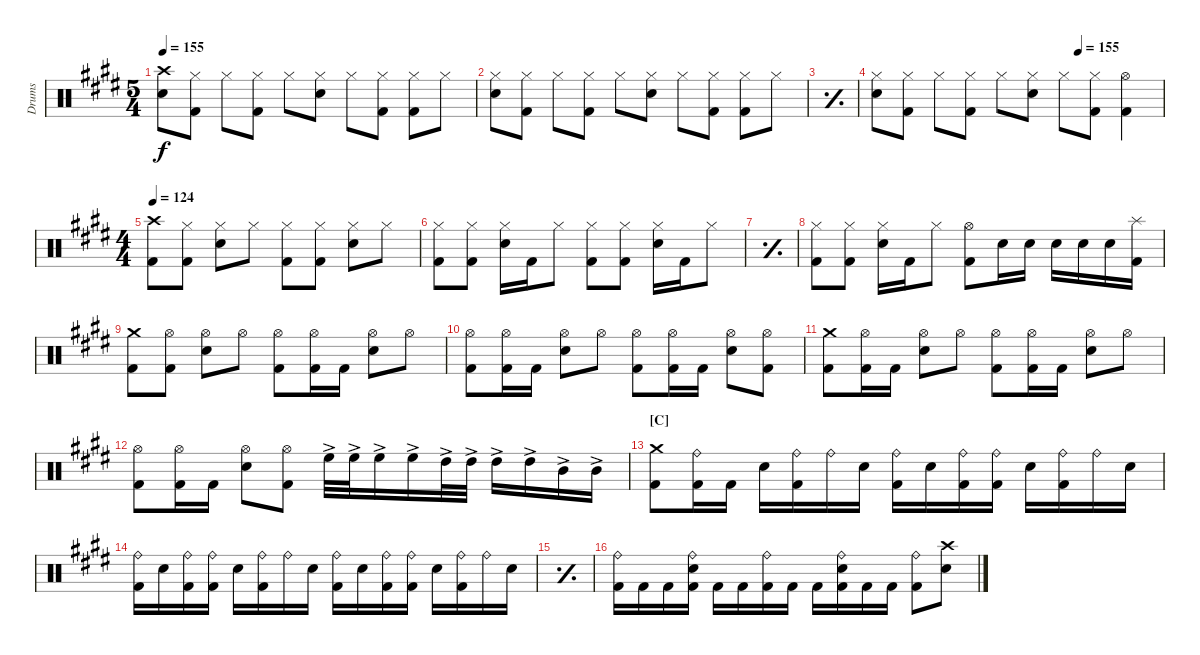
\defaultSystemsLayout 4
\bracketExtendMode groupsimilarinstruments
\otherSystemsTrackNameOrientation horizontal
\track ("Drumkit" "Drums") {multiBarRest instrument percussion}
\staff {score}
\articulation defaults
\ts (5 4)
\tempo 155
\clef neutral
\ks c#minor
("Snare (hit) 2"{acc forcenatural} "Crash high (hit)"{acc forcenatural}).8{dy f} ("Kick (hit) 2"{acc forcenatural} "Hi-Hat (closed)"{acc forcenatural}).8 "Hi-Hat (closed)"{acc forcenatural}.8 ("Kick (hit) 2"{acc forcenatural} "Hi-Hat (closed)"{acc forcenatural}).8 "Hi-Hat (closed)"{acc forcenatural}.8 ("Snare (hit) 2"{acc forcenatural} "Hi-Hat (closed)"{acc forcenatural}).8 "Hi-Hat (closed)"{acc forcenatural}.8 ("Hi-Hat (closed)"{acc forcenatural} "Kick (hit) 2"{acc forcenatural}).8 ("Hi-Hat (closed)"{acc forcenatural} "Kick (hit) 2"{acc forcenatural}).8 "Hi-Hat (closed)"{acc forcenatural}.8 |
("Snare (hit) 2"{acc forcenatural} "Hi-Hat (closed)"{acc forcenatural}).8 ("Kick (hit) 2"{acc forcenatural} "Hi-Hat (closed)"{acc forcenatural}).8 "Hi-Hat (closed)"{acc forcenatural}.8 ("Kick (hit) 2"{acc forcenatural} "Hi-Hat (closed)"{acc forcenatural}).8 "Hi-Hat (closed)"{acc forcenatural}.8 ("Snare (hit) 2"{acc forcenatural} "Hi-Hat (closed)"{acc forcenatural}).8 "Hi-Hat (closed)"{acc forcenatural}.8 ("Hi-Hat (closed)"{acc forcenatural} "Kick (hit) 2"{acc forcenatural}).8 ("Hi-Hat (closed)"{acc forcenatural} "Kick (hit) 2"{acc forcenatural}).8 "Hi-Hat (closed)"{acc forcenatural}.8 |
\simile simple
|
\tempo (155 0.70625)
\simile none
("Snare (hit) 2"{acc forcenatural} "Hi-Hat (closed)"{acc forcenatural}).8 ("Kick (hit) 2"{acc forcenatural} "Hi-Hat (closed)"{acc forcenatural}).8 "Hi-Hat (closed)"{acc forcenatural}.8 ("Kick (hit) 2"{acc forcenatural} "Hi-Hat (closed)"{acc forcenatural}).8 "Hi-Hat (closed)"{acc forcenatural}.8 ("Snare (hit) 2"{acc forcenatural} "Hi-Hat (closed)"{acc forcenatural}).8 "Hi-Hat (closed)"{acc forcenatural}.8 ("Hi-Hat (closed)"{acc forcenatural} "Kick (hit) 2"{acc forcenatural}).8 ("Kick (hit) 2"{acc forcenatural} "Hi-Hat (open)"{acc forcenatural}).4 |
\ts (4 4)
\beaming (8 2 2 2 2 2)
\tempo 124
("Crash high (hit)"{acc forcenatural} "Kick (hit) 2"{acc forcenatural}).8 ("Hi-Hat (closed)"{acc forcenatural} "Kick (hit) 2"{acc forcenatural}).8 ("Hi-Hat (closed)"{acc forcenatural} "Snare (hit) 2"{acc forcenatural}).8 "Hi-Hat (closed)"{acc forcenatural}.8 ("Kick (hit) 2"{acc forcenatural} "Hi-Hat (closed)"{acc forcenatural}).8 ("Hi-Hat (closed)"{acc forcenatural} "Kick (hit) 2"{acc forcenatural}).8 ("Hi-Hat (closed)"{acc forcenatural} "Snare (hit) 2"{acc forcenatural}).8 "Hi-Hat (closed)"{acc forcenatural}.8 |
("Kick (hit) 2"{acc forcenatural} "Hi-Hat (closed)"{acc forcenatural}).8 ("Hi-Hat (closed)"{acc forcenatural} "Kick (hit) 2"{acc forcenatural}).8 ("Hi-Hat (closed)"{acc forcenatural} "Snare (hit) 2"{acc forcenatural}).16 "Kick (hit) 2"{acc forcenatural}.16 "Hi-Hat (closed)"{acc forcenatural}.8 ("Kick (hit) 2"{acc forcenatural} "Hi-Hat (closed)"{acc forcenatural}).8 ("Hi-Hat (closed)"{acc forcenatural} "Kick (hit) 2"{acc forcenatural}).8 ("Hi-Hat (closed)"{acc forcenatural} "Snare (hit) 2"{acc forcenatural}).16 "Kick (hit) 2"{acc forcenatural}.16 "Hi-Hat (closed)"{acc forcenatural}.8 |
\simile simple
|
\simile none
("Kick (hit) 2"{acc forcenatural} "Hi-Hat (closed)"{acc forcenatural}).8 ("Hi-Hat (closed)"{acc forcenatural} "Kick (hit) 2"{acc forcenatural}).8 ("Hi-Hat (closed)"{acc forcenatural} "Snare (hit) 2"{acc forcenatural}).16 "Kick (hit) 2"{acc forcenatural}.16 "Hi-Hat (closed)"{acc forcenatural}.8 ("Hi-Hat (open)"{acc forcenatural} "Kick (hit) 2"{acc forcenatural}).8 "Snare (hit) 2"{acc forcenatural}.16 "Snare (hit) 2"{acc forcenatural}.16 "Snare (hit) 2"{acc forcenatural}.16 "Snare (hit) 2"{acc forcenatural}.16 "Snare (hit) 2"{acc forcenatural}.16 ("Splash (hit)"{acc forcenatural} "Kick (hit) 2"{acc forcenatural}).16 |
("Crash medium (hit)"{acc forcenatural} "Kick (hit) 2"{acc forcenatural}).8 ("Hi-Hat (open)"{acc forcenatural} "Kick (hit) 2"{acc forcenatural}).8 ("Hi-Hat (open)"{acc forcenatural} "Snare (hit) 2"{acc forcenatural}).8 "Hi-Hat (open)"{acc forcenatural}.8 ("Kick (hit) 2"{acc forcenatural} "Hi-Hat (open)"{acc forcenatural}).8 ("Hi-Hat (open)"{acc forcenatural} "Kick (hit) 2"{acc forcenatural}).16 "Kick (hit) 2"{acc forcenatural}.16 ("Hi-Hat (open)"{acc forcenatural} "Snare (hit) 2"{acc forcenatural}).8 "Hi-Hat (open)"{acc forcenatural}.8 |
("Kick (hit) 2"{acc forcenatural} "Hi-Hat (open)"{acc forcenatural}).8 ("Hi-Hat (open)"{acc forcenatural} "Kick (hit) 2"{acc forcenatural}).16 "Kick (hit) 2"{acc forcenatural}.16 ("Hi-Hat (open)"{acc forcenatural} "Snare (hit) 2"{acc forcenatural}).8 "Hi-Hat (open)"{acc forcenatural}.8 ("Kick (hit) 2"{acc forcenatural} "Hi-Hat (open)"{acc forcenatural}).8 ("Hi-Hat (open)"{acc forcenatural} "Kick (hit) 2"{acc forcenatural}).16 "Kick (hit) 2"{acc forcenatural}.16 ("Hi-Hat (open)"{acc forcenatural} "Snare (hit) 2"{acc forcenatural}).8 ("Hi-Hat (open)"{acc forcenatural} "Kick (hit) 2"{acc forcenatural}).8 |
("Kick (hit) 2"{acc forcenatural} "Crash medium (hit)"{acc forcenatural}).8 ("Hi-Hat (open)"{acc forcenatural} "Kick (hit) 2"{acc forcenatural}).16 "Kick (hit) 2"{acc forcenatural}.16 ("Hi-Hat (open)"{acc forcenatural} "Snare (hit) 2"{acc forcenatural}).8 "Hi-Hat (open)"{acc forcenatural}.8 ("Kick (hit) 2"{acc forcenatural} "Hi-Hat (open)"{acc forcenatural}).8 ("Hi-Hat (open)"{acc forcenatural} "Kick (hit) 2"{acc forcenatural}).16 "Kick (hit) 2"{acc forcenatural}.16 ("Hi-Hat (open)"{acc forcenatural} "Snare (hit) 2"{acc forcenatural}).8 "Hi-Hat (open)"{acc forcenatural}.8 |
("Kick (hit) 2"{acc forcenatural} "Hi-Hat (open)"{acc forcenatural}).8 ("Hi-Hat (open)"{acc forcenatural} "Kick (hit) 2"{acc forcenatural}).16 "Kick (hit) 2"{acc forcenatural}.16 ("Hi-Hat (open)"{acc forcenatural} "Snare (hit) 2"{acc forcenatural}).8 ("Hi-Hat (open)"{acc forcenatural} "Kick (hit) 2"{acc forcenatural}).8 "High Floor Tom (hit)"{ac acc forcenatural}.32 "High Floor Tom (hit)"{ac acc forcenatural}.32 "High Floor Tom (hit)"{ac acc forcenatural}.16 "High Floor Tom (hit)"{ac acc forcenatural}.16 "High Tom (hit)"{ac acc forcenatural}.32 "High Tom (hit)"{ac acc forcenatural}.32 "High Tom (hit)"{ac acc forcenatural}.16 "High Tom (hit)"{ac acc forcenatural}.16 "Mid Tom (hit)"{ac acc forcenatural}.16 "Mid Tom (hit)"{ac acc forcenatural}.16 |
\section ("C" "")
("Kick (hit) 2"{acc forcenatural} "Crash medium (hit)"{acc forcenatural}).8 ("Kick (hit) 2"{acc forcenatural} "Ride (bell)"{acc forcenatural}).16 "Kick (hit) 2"{acc forcenatural}.16 "Snare (hit) 2"{acc forcenatural}.16 ("Kick (hit) 2"{acc forcenatural} "Ride (bell)"{acc forcenatural}).16 "Ride (bell)"{acc forcenatural}.16 "Snare (hit) 2"{acc forcenatural}.16 ("Kick (hit) 2"{acc forcenatural} "Ride (bell)"{acc forcenatural}).16 "Snare (hit) 2"{acc forcenatural}.16 ("Kick (hit) 2"{acc forcenatural} "Ride (bell)"{acc forcenatural}).16 ("Kick (hit) 2"{acc forcenatural} "Ride (bell)"{acc forcenatural}).16 "Snare (hit) 2"{acc forcenatural}.16 ("Kick (hit) 2"{acc forcenatural} "Ride (bell)"{acc forcenatural}).16 "Ride (bell)"{acc forcenatural}.16 "Snare (hit) 2"{acc forcenatural}.16 |
("Kick (hit) 2"{acc forcenatural} "Ride (bell)"{acc forcenatural}).16 "Snare (hit) 2"{acc forcenatural}.16 ("Kick (hit) 2"{acc forcenatural} "Ride (bell)"{acc forcenatural}).16 ("Kick (hit) 2"{acc forcenatural} "Ride (bell)"{acc forcenatural}).16 "Snare (hit) 2"{acc forcenatural}.16 ("Kick (hit) 2"{acc forcenatural} "Ride (bell)"{acc forcenatural}).16 "Ride (bell)"{acc forcenatural}.16 "Snare (hit) 2"{acc forcenatural}.16 ("Kick (hit) 2"{acc forcenatural} "Ride (bell)"{acc forcenatural}).16 "Snare (hit) 2"{acc forcenatural}.16 ("Kick (hit) 2"{acc forcenatural} "Ride (bell)"{acc forcenatural}).16 ("Kick (hit) 2"{acc forcenatural} "Ride (bell)"{acc forcenatural}).16 "Snare (hit) 2"{acc forcenatural}.16 ("Kick (hit) 2"{acc forcenatural} "Ride (bell)"{acc forcenatural}).16 "Ride (bell)"{acc forcenatural}.16 "Snare (hit) 2"{acc forcenatural}.16 |
\simile simple
|
\simile none
("Kick (hit) 2"{acc forcenatural} "Ride (bell)"{acc forcenatural}).16 "Kick (hit) 2"{acc forcenatural}.16 "Kick (hit) 2"{acc forcenatural}.16 ("Kick (hit) 2"{acc forcenatural} "Snare (hit) 2"{acc forcenatural} "Ride (bell)"{acc forcenatural}).16 "Kick (hit) 2"{acc forcenatural}.16 "Kick (hit) 2"{acc forcenatural}.16 ("Kick (hit) 2"{acc forcenatural} "Ride (bell)"{acc forcenatural}).16 "Kick (hit) 2"{acc forcenatural}.16 "Kick (hit) 2"{acc forcenatural}.16 ("Kick (hit) 2"{acc forcenatural} "Snare (hit) 2"{acc forcenatural} "Ride (bell)"{acc forcenatural}).16 "Kick (hit) 2"{acc forcenatural}.16 "Kick (hit) 2"{acc forcenatural}.16 ("Kick (hit) 2"{acc forcenatural} "Ride (bell)"{acc forcenatural}).8 ("Snare (hit) 2"{acc forcenatural} "Crash high (hit)"{acc forcenatural}).8
